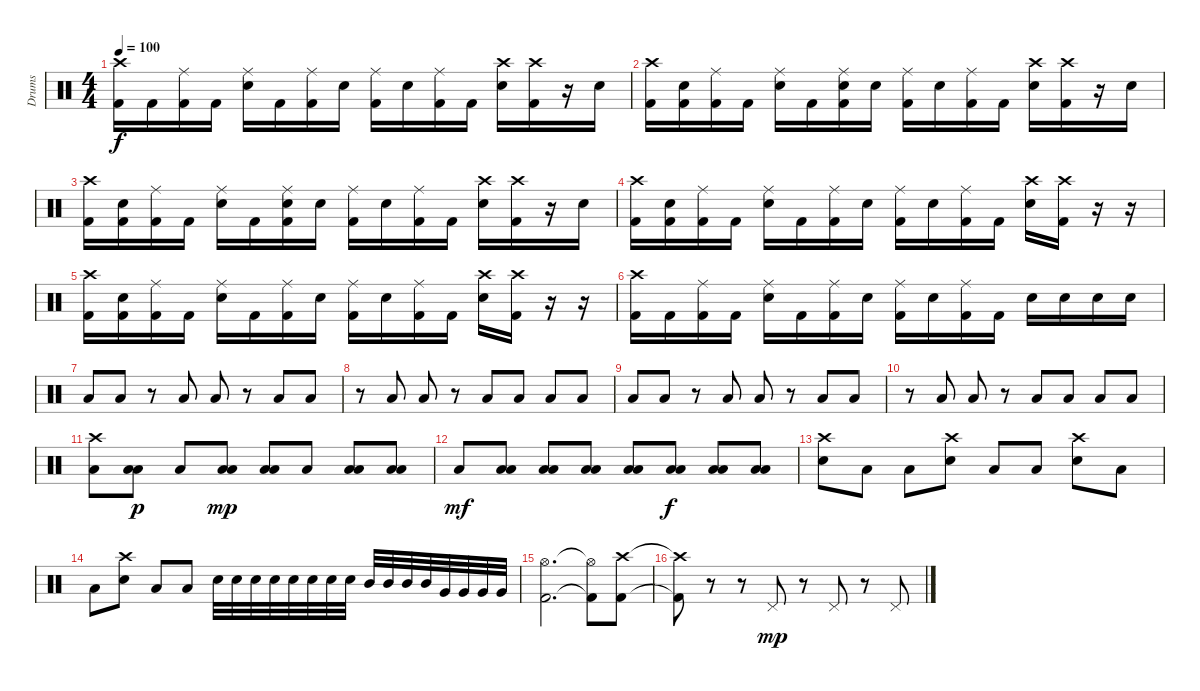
\track ("Drums" "Drums") {instrument percussion}
\staff {score}
\articulation defaults
\ts (4 4)
\tempo 100
\clef neutral
\ks c
("Crash high (hit)" "Kick (hit) 2").16{dy f} "Kick (hit) 2".16 ("Ride (middle)" "Kick (hit) 2").16 "Kick (hit) 2".16 ("Ride (middle)" "Electric Snare (hit)").16 "Kick (hit) 2".16 ("Ride (middle)" "Kick (hit) 2").16 "Electric Snare (hit)".16 ("Ride (middle)" "Kick (hit) 2").16 "Electric Snare (hit)".16 ("Ride (middle)" "Kick (hit) 2").16 "Kick (hit) 2".16 ("Crash high (hit)" "Electric Snare (hit)").16 ("Crash high (hit)" "Kick (hit) 2").16 r.16 "Electric Snare (hit)".16 |
("Crash high (hit)" "Kick (hit) 2").16 ("Electric Snare (hit)" "Kick (hit) 2").16 ("Ride (middle)" "Kick (hit) 2").16 "Kick (hit) 2".16 ("Ride (middle)" "Electric Snare (hit)").16 "Kick (hit) 2".16 ("Ride (middle)" "Electric Snare (hit)" "Kick (hit) 2").16 "Electric Snare (hit)".16 ("Ride (middle)" "Kick (hit) 2").16 "Electric Snare (hit)".16 ("Ride (middle)" "Kick (hit) 2").16 "Kick (hit) 2".16 ("Crash high (hit)" "Electric Snare (hit)").16 ("Crash high (hit)" "Kick (hit) 2").16 r.16 "Electric Snare (hit)".16 |
("Crash high (hit)" "Kick (hit) 2").16 ("Electric Snare (hit)" "Kick (hit) 2").16 ("Ride (middle)" "Kick (hit) 2").16 "Kick (hit) 2".16 ("Ride (middle)" "Electric Snare (hit)").16 "Kick (hit) 2".16 ("Ride (middle)" "Electric Snare (hit)" "Kick (hit) 2").16 "Electric Snare (hit)".16 ("Ride (middle)" "Kick (hit) 2").16 "Electric Snare (hit)".16 ("Ride (middle)" "Kick (hit) 2").16 "Kick (hit) 2".16 ("Crash high (hit)" "Electric Snare (hit)").16 ("Crash high (hit)" "Kick (hit) 2").16 r.16 "Electric Snare (hit)".16 |
("Crash high (hit)" "Kick (hit) 2").16 ("Electric Snare (hit)" "Kick (hit) 2").16 ("Ride (middle)" "Kick (hit) 2").16 "Kick (hit) 2".16 ("Ride (middle)" "Electric Snare (hit)").16 "Kick (hit) 2".16 ("Ride (middle)" "Kick (hit) 2").16 "Electric Snare (hit)".16 ("Ride (middle)" "Kick (hit) 2").16 "Electric Snare (hit)".16 ("Ride (middle)" "Kick (hit) 2").16 "Kick (hit) 2".16 ("Crash high (hit)" "Electric Snare (hit)").16 ("Crash high (hit)" "Kick (hit) 2").16 r.16 r.16 |
("Crash high (hit)" "Kick (hit) 2").16 ("Electric Snare (hit)" "Kick (hit) 2").16 ("Ride (middle)" "Kick (hit) 2").16 "Kick (hit) 2".16 ("Ride (middle)" "Electric Snare (hit)").16 "Kick (hit) 2".16 ("Ride (middle)" "Kick (hit) 2").16 "Electric Snare (hit)".16 ("Ride (middle)" "Kick (hit) 2").16 "Electric Snare (hit)".16 ("Ride (middle)" "Kick (hit) 2").16 "Kick (hit) 2".16 ("Crash high (hit)" "Electric Snare (hit)").16 ("Crash high (hit)" "Kick (hit) 2").16 r.16 r.16 |
("Crash high (hit)" "Kick (hit) 2").16 "Kick (hit) 2".16 ("Ride (middle)" "Kick (hit) 2").16 "Kick (hit) 2".16 ("Ride (middle)" "Electric Snare (hit)").16 "Kick (hit) 2".16 ("Ride (middle)" "Kick (hit) 2").16 "Electric Snare (hit)".16 ("Ride (middle)" "Kick (hit) 2").16 "Electric Snare (hit)".16 ("Ride (middle)" "Kick (hit) 2").16 "Kick (hit) 2".16 "Electric Snare (hit)".16 "Electric Snare (hit)".16 "Electric Snare (hit)".16 "Electric Snare (hit)".16 |
"Low Floor Tom (hit)".8 "Low Floor Tom (hit)".8 r.8 "Low Floor Tom (hit)".8 "Low Floor Tom (hit)".8 r.8 "Low Floor Tom (hit)".8 "Low Floor Tom (hit)".8 |
r.8 "Low Floor Tom (hit)".8 "Low Floor Tom (hit)".8 r.8 "Low Floor Tom (hit)".8 "Low Floor Tom (hit)".8 "Low Floor Tom (hit)".8 "Low Floor Tom (hit)".8 |
"Low Floor Tom (hit)".8 "Low Floor Tom (hit)".8 r.8 "Low Floor Tom (hit)".8 "Low Floor Tom (hit)".8 r.8 "Low Floor Tom (hit)".8 "Low Floor Tom (hit)".8 |
r.8 "Low Floor Tom (hit)".8 "Low Floor Tom (hit)".8 r.8 "Low Floor Tom (hit)".8 "Low Floor Tom (hit)".8 "Low Floor Tom (hit)".8 "Low Floor Tom (hit)".8 |
("Crash high (hit)" "Low Floor Tom (hit)").8 ("Low Floor Tom (hit)" "Low Floor Tom (hit)").8{dy p} "Low Floor Tom (hit)".8 ("Low Floor Tom (hit)" "Low Floor Tom (hit)").8{dy mp} ("Low Floor Tom (hit)" "Low Floor Tom (hit)").8 "Low Floor Tom (hit)".8 ("Low Floor Tom (hit)" "Low Floor Tom (hit)").8 ("Low Floor Tom (hit)" "Low Floor Tom (hit)").8 |
"Low Floor Tom (hit)".8{dy mf} ("Low Floor Tom (hit)" "Low Floor Tom (hit)").8 ("Low Floor Tom (hit)" "Low Floor Tom (hit)").8 ("Low Floor Tom (hit)" "Low Floor Tom (hit)").8 ("Low Floor Tom (hit)" "Low Floor Tom (hit)").8 ("Low Floor Tom (hit)" "Low Floor Tom (hit)").8{dy f} ("Low Floor Tom (hit)" "Low Floor Tom (hit)").8 ("Low Floor Tom (hit)" "Low Floor Tom (hit)").8 |
("Crash high (hit)" "Electric Snare (hit)").8 "Low Floor Tom (hit)".8 "Low Floor Tom (hit)".8 ("Crash high (hit)" "Electric Snare (hit)").8 "Low Floor Tom (hit)".8 "Low Floor Tom (hit)".8 ("Crash high (hit)" "Electric Snare (hit)").8 "Low Floor Tom (hit)".8 |
"Low Floor Tom (hit)".8 ("Crash high (hit)" "Electric Snare (hit)").8 "Low Floor Tom (hit)".8 "Low Floor Tom (hit)".8 "Electric Snare (hit)".32 "Electric Snare (hit)".32 "Electric Snare (hit)".32 "Electric Snare (hit)".32 "Electric Snare (hit)".32 "Electric Snare (hit)".32 "Electric Snare (hit)".32 "Electric Snare (hit)".32 "Mid Tom (hit)".32 "Mid Tom (hit)".32 "Mid Tom (hit)".32 "Mid Tom (hit)".32 "Very Low Tom (hit)".32 "Very Low Tom (hit)".32 "Very Low Tom (hit)".32 "Very Low Tom (hit)".32 |
("Hi-Hat (open)" "Kick (hit) 2").2{d} ("Hi-Hat (open)"{t} "Kick (hit) 2"{t}).8 ("Crash high (hit)" "Kick (hit) 2").8 |
("Crash high (hit)"{t} "Kick (hit) 2"{t}).8 r.8 r.8 "Pedal Hi-Hat (hit)".8{dy mp} r.8 "Pedal Hi-Hat (hit)".8 r.8 "Pedal Hi-Hat (hit)".8
